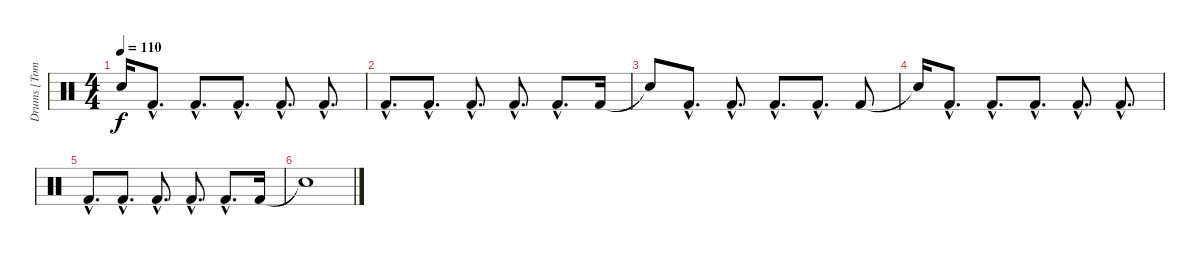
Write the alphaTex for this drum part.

\track ("Drums [Tomas Haake]" "Drums [Tom") {instrument percussion}
\staff {score}
\articulation defaults
\ts (4 4)
\tempo 110
\clef neutral
\ks c "Snare (hit)"{t}.16{dy f} "Kick (hit) 2"{hac}.8{d} "Kick (hit) 2"{hac}.8{d} "Kick (hit) 2"{hac}.8{d} "Kick (hit) 2"{hac}.8{d} "Kick (hit) 2"{hac}.8{d}
|
"Kick (hit) 2"{hac}.8{d} "Kick (hit) 2"{hac}.8{d} "Kick (hit) 2"{hac}.8{d} "Kick (hit) 2"{hac}.8{d} "Kick (hit) 2"{hac}.8{d} "Kick (hit) 2".16 |
"Snare (hit)"{t}.8 "Kick (hit) 2"{hac}.8{d} "Kick (hit) 2"{hac}.8{d} "Kick (hit) 2"{hac}.8{d} "Kick (hit) 2"{hac}.8{d} "Kick (hit) 2".8 |
"Snare (hit)"{t}.16 "Kick (hit) 2"{hac}.8{d} "Kick (hit) 2"{hac}.8{d} "Kick (hit) 2"{hac}.8{d} "Kick (hit) 2"{hac}.8{d} "Kick (hit) 2"{hac}.8{d} |
"Kick (hit) 2"{hac}.8{d} "Kick (hit) 2"{hac}.8{d} "Kick (hit) 2"{hac}.8{d} "Kick (hit) 2"{hac}.8{d} "Kick (hit) 2"{hac}.8{d} "Kick (hit) 2".16 |
"Snare (hit)"{t}.1
